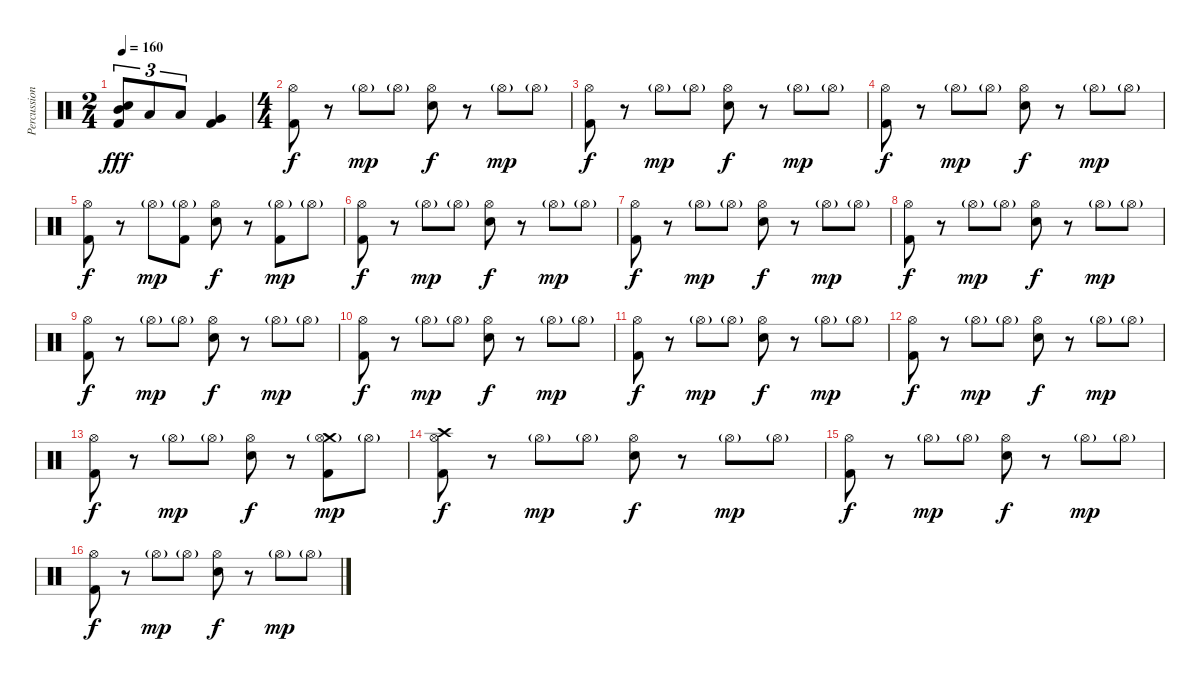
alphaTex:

\track ("Percussion" "Percussion") {instrument percussion}
\staff {score}
\articulation defaults
\ts (2 4)
\tempo 160
\clef neutral
\ks c
("Mid Tom (hit)" "Electric Snare (hit)" "Kick (hit) 2").8{tu (3 2) dy fff} "Low Tom (hit)".8{tu (3 2)} "Low Tom (hit)".8{tu (3 2)} ("Very Low Tom (hit)" "Kick (hit) 2").4 |
\ts (4 4)
("Hi-Hat (open)" "Kick (hit) 2").8{dy f} r.8 "Hi-Hat (open)"{g}.8{dy mp} "Hi-Hat (open)"{g}.8 ("Hi-Hat (open)" "Electric Snare (hit)").8{dy f} r.8 "Hi-Hat (open)"{g}.8{dy mp} "Hi-Hat (open)"{g}.8 |
("Hi-Hat (open)" "Kick (hit) 2").8{dy f} r.8 "Hi-Hat (open)"{g}.8{dy mp} "Hi-Hat (open)"{g}.8 ("Hi-Hat (open)" "Electric Snare (hit)").8{dy f} r.8 "Hi-Hat (open)"{g}.8{dy mp} "Hi-Hat (open)"{g}.8 |
("Hi-Hat (open)" "Kick (hit) 2").8{dy f} r.8 "Hi-Hat (open)"{g}.8{dy mp} "Hi-Hat (open)"{g}.8 ("Hi-Hat (open)" "Electric Snare (hit)").8{dy f} r.8 "Hi-Hat (open)"{g}.8{dy mp} "Hi-Hat (open)"{g}.8 |
("Hi-Hat (open)" "Kick (hit) 2").8{dy f} r.8 "Hi-Hat (open)"{g}.8{dy mp} ("Hi-Hat (open)"{g} "Kick (hit) 2").8 ("Hi-Hat (open)" "Electric Snare (hit)").8{dy f} r.8 ("Hi-Hat (open)"{g} "Kick (hit) 2").8{dy mp} "Hi-Hat (open)"{g}.8 |
("Hi-Hat (open)" "Kick (hit) 2").8{dy f} r.8 "Hi-Hat (open)"{g}.8{dy mp} "Hi-Hat (open)"{g}.8 ("Hi-Hat (open)" "Electric Snare (hit)").8{dy f} r.8 "Hi-Hat (open)"{g}.8{dy mp} "Hi-Hat (open)"{g}.8 |
("Hi-Hat (open)" "Kick (hit) 2").8{dy f} r.8 "Hi-Hat (open)"{g}.8{dy mp} "Hi-Hat (open)"{g}.8 ("Hi-Hat (open)" "Electric Snare (hit)").8{dy f} r.8 "Hi-Hat (open)"{g}.8{dy mp} "Hi-Hat (open)"{g}.8 |
("Hi-Hat (open)" "Kick (hit) 2").8{dy f} r.8 "Hi-Hat (open)"{g}.8{dy mp} "Hi-Hat (open)"{g}.8 ("Hi-Hat (open)" "Electric Snare (hit)").8{dy f} r.8 "Hi-Hat (open)"{g}.8{dy mp} "Hi-Hat (open)"{g}.8 |
("Hi-Hat (open)" "Kick (hit) 2").8{dy f} r.8 "Hi-Hat (open)"{g}.8{dy mp} "Hi-Hat (open)"{g}.8 ("Hi-Hat (open)" "Electric Snare (hit)").8{dy f} r.8 "Hi-Hat (open)"{g}.8{dy mp} "Hi-Hat (open)"{g}.8 |
("Hi-Hat (open)" "Kick (hit) 2").8{dy f} r.8 "Hi-Hat (open)"{g}.8{dy mp} "Hi-Hat (open)"{g}.8 ("Hi-Hat (open)" "Electric Snare (hit)").8{dy f} r.8 "Hi-Hat (open)"{g}.8{dy mp} "Hi-Hat (open)"{g}.8 |
("Hi-Hat (open)" "Kick (hit) 2").8{dy f} r.8 "Hi-Hat (open)"{g}.8{dy mp} "Hi-Hat (open)"{g}.8 ("Hi-Hat (open)" "Electric Snare (hit)").8{dy f} r.8 "Hi-Hat (open)"{g}.8{dy mp} "Hi-Hat (open)"{g}.8 |
("Hi-Hat (open)" "Kick (hit) 2").8{dy f} r.8 "Hi-Hat (open)"{g}.8{dy mp} "Hi-Hat (open)"{g}.8 ("Hi-Hat (open)" "Electric Snare (hit)").8{dy f} r.8 "Hi-Hat (open)"{g}.8{dy mp} "Hi-Hat (open)"{g}.8 |
("Hi-Hat (open)" "Kick (hit) 2").8{dy f} r.8 "Hi-Hat (open)"{g}.8{dy mp} "Hi-Hat (open)"{g}.8 ("Hi-Hat (open)" "Electric Snare (hit)").8{dy f} r.8 ("Crash medium (hit)" "Hi-Hat (open)"{g} "Kick (hit) 2").8{dy mp} "Hi-Hat (open)"{g}.8 |
("Crash high (hit)" "Hi-Hat (open)" "Kick (hit) 2").8{dy f} r.8 "Hi-Hat (open)"{g}.8{dy mp} "Hi-Hat (open)"{g}.8 ("Hi-Hat (open)" "Electric Snare (hit)").8{dy f} r.8 "Hi-Hat (open)"{g}.8{dy mp} "Hi-Hat (open)"{g}.8 |
("Hi-Hat (open)" "Kick (hit) 2").8{dy f} r.8 "Hi-Hat (open)"{g}.8{dy mp} "Hi-Hat (open)"{g}.8 ("Hi-Hat (open)" "Electric Snare (hit)").8{dy f} r.8 "Hi-Hat (open)"{g}.8{dy mp} "Hi-Hat (open)"{g}.8 |
("Hi-Hat (open)" "Kick (hit) 2").8{dy f} r.8 "Hi-Hat (open)"{g}.8{dy mp} "Hi-Hat (open)"{g}.8 ("Hi-Hat (open)" "Electric Snare (hit)").8{dy f} r.8 "Hi-Hat (open)"{g}.8{dy mp} "Hi-Hat (open)"{g}.8
